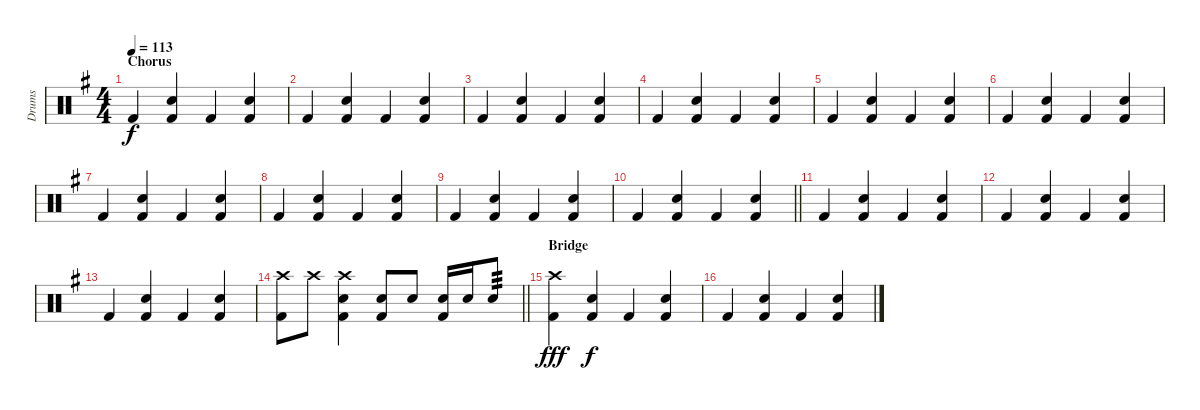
\track ("Drums" "Drums") {instrument percussion}
\staff {score}
\articulation defaults
\ts (4 4)
\section ("" "Chorus")
\tempo 113
\clef neutral
\ks g "Kick (hit) 2".4{dy f}
("Snare (hit) 2" "Kick (hit) 2").4 "Kick (hit) 2".4 ("Snare (hit) 2" "Kick (hit) 2").4 |
"Kick (hit) 2".4 ("Snare (hit) 2" "Kick (hit) 2").4 "Kick (hit) 2".4 ("Snare (hit) 2" "Kick (hit) 2").4 |
"Kick (hit) 2".4 ("Snare (hit) 2" "Kick (hit) 2").4 "Kick (hit) 2".4 ("Snare (hit) 2" "Kick (hit) 2").4 |
"Kick (hit) 2".4 ("Snare (hit) 2" "Kick (hit) 2").4 "Kick (hit) 2".4 ("Snare (hit) 2" "Kick (hit) 2").4 |
"Kick (hit) 2".4 ("Snare (hit) 2" "Kick (hit) 2").4 "Kick (hit) 2".4 ("Snare (hit) 2" "Kick (hit) 2").4 |
"Kick (hit) 2".4 ("Snare (hit) 2" "Kick (hit) 2").4 "Kick (hit) 2".4 ("Snare (hit) 2" "Kick (hit) 2").4 |
"Kick (hit) 2".4 ("Snare (hit) 2" "Kick (hit) 2").4 "Kick (hit) 2".4 ("Snare (hit) 2" "Kick (hit) 2").4 |
"Kick (hit) 2".4 ("Snare (hit) 2" "Kick (hit) 2").4 "Kick (hit) 2".4 ("Snare (hit) 2" "Kick (hit) 2").4 |
"Kick (hit) 2".4 ("Snare (hit) 2" "Kick (hit) 2").4 "Kick (hit) 2".4 ("Snare (hit) 2" "Kick (hit) 2").4 |
\barLineRight lightlight "Kick (hit) 2".4
("Snare (hit) 2" "Kick (hit) 2").4 "Kick (hit) 2".4 ("Snare (hit) 2" "Kick (hit) 2").4 |
"Kick (hit) 2".4 ("Snare (hit) 2" "Kick (hit) 2").4 "Kick (hit) 2".4 ("Snare (hit) 2" "Kick (hit) 2").4 |
"Kick (hit) 2".4 ("Snare (hit) 2" "Kick (hit) 2").4 "Kick (hit) 2".4 ("Snare (hit) 2" "Kick (hit) 2").4 |
"Kick (hit) 2".4 ("Snare (hit) 2" "Kick (hit) 2").4 "Kick (hit) 2".4 ("Snare (hit) 2" "Kick (hit) 2").4 |
\barLineRight lightlight
("Crash high (hit)" "Kick (hit) 2").8 "Crash high (hit)".8 ("Crash high (hit)" "Snare (hit) 2" "Kick (hit) 2").4 ("Snare (hit) 2" "Kick (hit) 2").8 "Snare (hit) 2".8 ("Snare (hit) 2" "Kick (hit) 2").16 "Snare (hit) 2".16 "Snare (hit) 2".8{tp 3} |
\section ("" "Bridge")
("Crash high (hit)" "Kick (hit) 2").4{dy fff} ("Snare (hit) 2" "Kick (hit) 2").4{dy f} "Kick (hit) 2".4 ("Snare (hit) 2" "Kick (hit) 2").4 |
"Kick (hit) 2".4 ("Snare (hit) 2" "Kick (hit) 2").4 "Kick (hit) 2".4 ("Snare (hit) 2" "Kick (hit) 2").4
